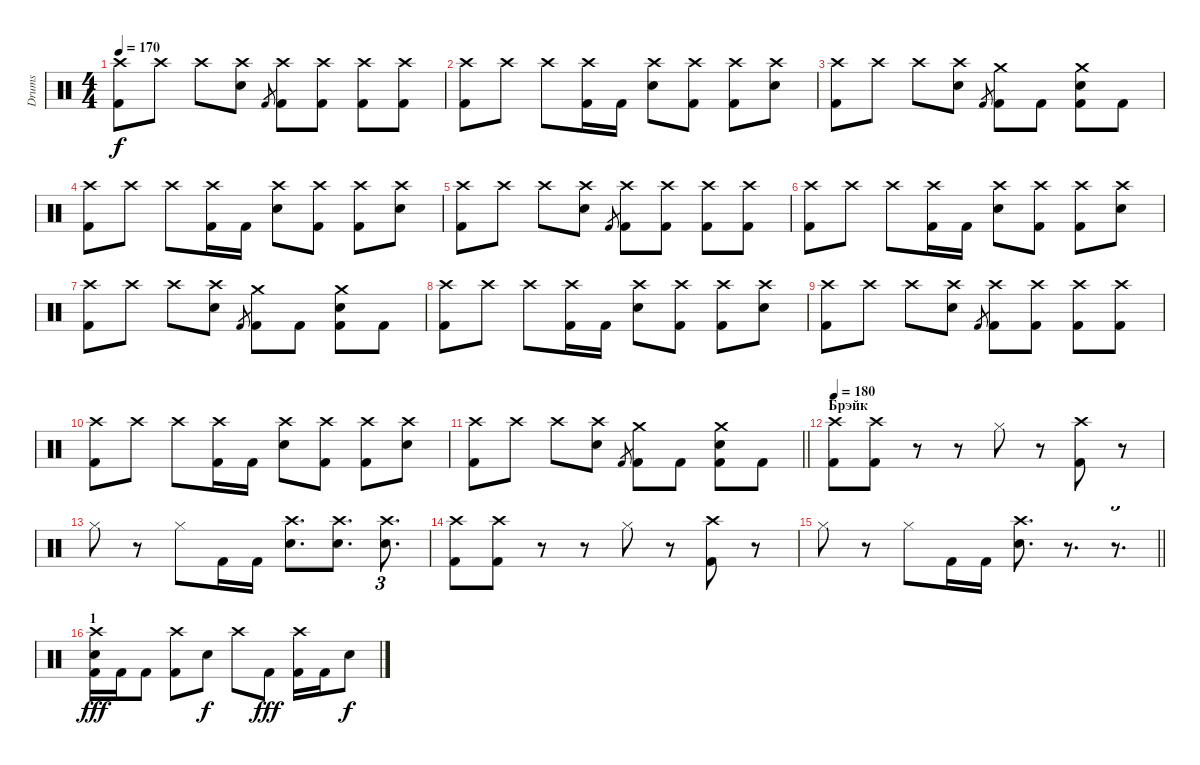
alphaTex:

\track ("Drums" "Drums") {instrument percussion}
\staff {score}
\articulation defaults
\ts (4 4)
\tempo 170
\clef neutral
\ks c
("Crash high (hit)" "Kick (hit) 2").8{dy f} "Crash high (hit)".8 "Crash high (hit)".8 ("Crash high (hit)" "Electric Snare (hit)").8 "Kick (hit) 2".8{gr} ("Crash high (hit)" "Kick (hit) 2").8 ("Crash high (hit)" "Kick (hit) 2").8 ("Crash high (hit)" "Kick (hit) 2").8 ("Crash high (hit)" "Kick (hit) 2").8 |
("Crash high (hit)" "Kick (hit) 2").8 "Crash high (hit)".8 "Crash high (hit)".8 ("Crash high (hit)" "Kick (hit) 2").16 "Kick (hit) 2".16 ("Crash high (hit)" "Electric Snare (hit)").8 ("Crash high (hit)" "Kick (hit) 2").8 ("Crash high (hit)" "Kick (hit) 2").8 ("Crash high (hit)" "Electric Snare (hit)").8 |
("Crash high (hit)" "Kick (hit) 2").8 "Crash high (hit)".8 "Crash high (hit)".8 ("Crash high (hit)" "Electric Snare (hit)").8 "Kick (hit) 2".8{gr} ("Crash medium (hit)" "Kick (hit) 2").8 "Kick (hit) 2".8 ("Crash medium (hit)" "Electric Snare (hit)" "Kick (hit) 2").8 "Kick (hit) 2".8 |
("Crash high (hit)" "Kick (hit) 2").8 "Crash high (hit)".8 "Crash high (hit)".8 ("Crash high (hit)" "Kick (hit) 2").16 "Kick (hit) 2".16 ("Crash high (hit)" "Electric Snare (hit)").8 ("Crash high (hit)" "Kick (hit) 2").8 ("Crash high (hit)" "Kick (hit) 2").8 ("Crash high (hit)" "Electric Snare (hit)").8 |
("Crash high (hit)" "Kick (hit) 2").8 "Crash high (hit)".8 "Crash high (hit)".8 ("Crash high (hit)" "Electric Snare (hit)").8 "Kick (hit) 2".8{gr} ("Crash high (hit)" "Kick (hit) 2").8 ("Crash high (hit)" "Kick (hit) 2").8 ("Crash high (hit)" "Kick (hit) 2").8 ("Crash high (hit)" "Kick (hit) 2").8 |
("Crash high (hit)" "Kick (hit) 2").8 "Crash high (hit)".8 "Crash high (hit)".8 ("Crash high (hit)" "Kick (hit) 2").16 "Kick (hit) 2".16 ("Crash high (hit)" "Electric Snare (hit)").8 ("Crash high (hit)" "Kick (hit) 2").8 ("Crash high (hit)" "Kick (hit) 2").8 ("Crash high (hit)" "Electric Snare (hit)").8 |
("Crash high (hit)" "Kick (hit) 2").8 "Crash high (hit)".8 "Crash high (hit)".8 ("Crash high (hit)" "Electric Snare (hit)").8 "Kick (hit) 2".8{gr} ("Crash medium (hit)" "Kick (hit) 2").8 "Kick (hit) 2".8 ("Crash medium (hit)" "Electric Snare (hit)" "Kick (hit) 2").8 "Kick (hit) 2".8 |
("Crash high (hit)" "Kick (hit) 2").8 "Crash high (hit)".8 "Crash high (hit)".8 ("Crash high (hit)" "Kick (hit) 2").16 "Kick (hit) 2".16 ("Crash high (hit)" "Electric Snare (hit)").8 ("Crash high (hit)" "Kick (hit) 2").8 ("Crash high (hit)" "Kick (hit) 2").8 ("Crash high (hit)" "Electric Snare (hit)").8 |
("Crash high (hit)" "Kick (hit) 2").8 "Crash high (hit)".8 "Crash high (hit)".8 ("Crash high (hit)" "Electric Snare (hit)").8 "Kick (hit) 2".8{gr} ("Crash high (hit)" "Kick (hit) 2").8 ("Crash high (hit)" "Kick (hit) 2").8 ("Crash high (hit)" "Kick (hit) 2").8 ("Crash high (hit)" "Kick (hit) 2").8 |
("Crash high (hit)" "Kick (hit) 2").8 "Crash high (hit)".8 "Crash high (hit)".8 ("Crash high (hit)" "Kick (hit) 2").16 "Kick (hit) 2".16 ("Crash high (hit)" "Electric Snare (hit)").8 ("Crash high (hit)" "Kick (hit) 2").8 ("Crash high (hit)" "Kick (hit) 2").8 ("Crash high (hit)" "Electric Snare (hit)").8 |
\barLineRight lightlight
("Crash high (hit)" "Kick (hit) 2").8 "Crash high (hit)".8 "Crash high (hit)".8 ("Crash high (hit)" "Electric Snare (hit)").8 "Kick (hit) 2".8{gr} ("Crash medium (hit)" "Kick (hit) 2").8 "Kick (hit) 2".8 ("Crash medium (hit)" "Electric Snare (hit)" "Kick (hit) 2").8 "Kick (hit) 2".8 |
\section ("" "Брэйк")
\tempo 180
("Crash high (hit)" "Kick (hit) 2").8{volume 12} ("Crash high (hit)" "Kick (hit) 2").8 r.8 r.8 "Hi-Hat (closed)".8 r.8 ("Crash high (hit)" "Kick (hit) 2").8 r.8 |
"Hi-Hat (closed)".8 r.8 "Hi-Hat (closed)".8 "Kick (hit) 2".16 "Kick (hit) 2".16 ("Crash high (hit)" "Electric Snare (hit)").8{d} ("Crash high (hit)" "Electric Snare (hit)").8{d} ("Crash high (hit)" "Electric Snare (hit)").8{d tu (3 2)} |
("Crash high (hit)" "Kick (hit) 2").8 ("Crash high (hit)" "Kick (hit) 2").8 r.8 r.8 "Hi-Hat (closed)".8 r.8 ("Crash high (hit)" "Kick (hit) 2").8 r.8 |
\barLineRight lightlight "Hi-Hat (closed)".8
r.8 "Hi-Hat (closed)".8 "Kick (hit) 2".16 "Kick (hit) 2".16 ("Crash high (hit)" "Electric Snare (hit)").8{d} r.8{d} r.8{d tu (3 2)} |
\section ("" "1")
("Crash high (hit)" "Electric Snare (hit)" "Kick (hit) 2").16{dy fff} "Kick (hit) 2".16 "Kick (hit) 2".8 ("Crash high (hit)" "Kick (hit) 2").8 "Electric Snare (hit)".8{dy f} "Crash high (hit)".8 "Kick (hit) 2".8{dy fff} ("Crash high (hit)" "Kick (hit) 2").16 "Kick (hit) 2".16 "Electric Snare (hit)".8{dy f}
